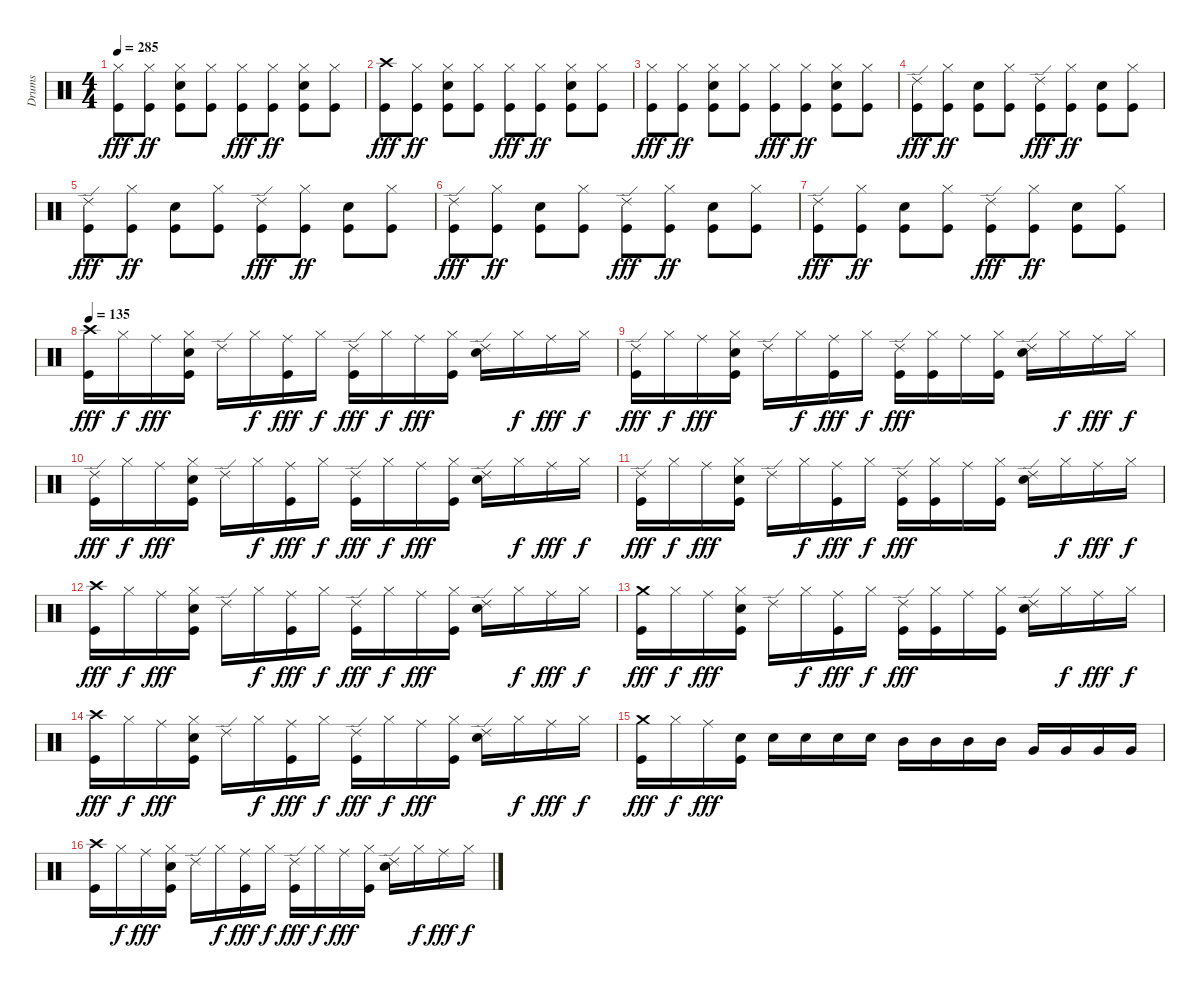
\track ("Drums" "Drums") {instrument percussion}
\staff {score}
\articulation defaults
\ts (4 4)
\tempo 285
\clef neutral
\ks c
("Hi-Hat (closed)" "Kick (hit)").8{dy fff} ("Hi-Hat (closed)" "Kick (hit)").8{dy ff} ("Hi-Hat (closed)" "Snare (hit) 2" "Kick (hit)").8 ("Hi-Hat (closed)" "Kick (hit)").8 ("Hi-Hat (closed)" "Kick (hit)").8{dy fff} ("Hi-Hat (closed)" "Kick (hit)").8{dy ff} ("Hi-Hat (closed)" "Snare (hit) 2" "Kick (hit)").8 ("Hi-Hat (closed)" "Kick (hit)").8 |
("Crash high (hit)" "Kick (hit)").8{dy fff} ("Hi-Hat (closed)" "Kick (hit)").8{dy ff} ("Hi-Hat (closed)" "Snare (hit) 2" "Kick (hit)").8 ("Hi-Hat (closed)" "Kick (hit)").8 ("Hi-Hat (closed)" "Kick (hit)").8{dy fff} ("Hi-Hat (closed)" "Kick (hit)").8{dy ff} ("Hi-Hat (closed)" "Snare (hit) 2" "Kick (hit)").8 ("Hi-Hat (closed)" "Kick (hit)").8 |
("Hi-Hat (closed)" "Kick (hit)").8{dy fff} ("Hi-Hat (closed)" "Kick (hit)").8{dy ff} ("Hi-Hat (closed)" "Snare (hit) 2" "Kick (hit)").8 ("Hi-Hat (closed)" "Kick (hit)").8 ("Hi-Hat (closed)" "Kick (hit)").8{dy fff} ("Hi-Hat (closed)" "Kick (hit)").8{dy ff} ("Hi-Hat (closed)" "Snare (hit) 2" "Kick (hit)").8 ("Hi-Hat (closed)" "Kick (hit)").8 |
("Ride (edge) 2" "Kick (hit)").8{dy fff} ("Hi-Hat (closed)" "Kick (hit)").8{dy ff} ("Snare (hit) 2" "Kick (hit)").8 ("Hi-Hat (closed)" "Kick (hit)").8 ("Ride (edge) 2" "Kick (hit)").8{dy fff} ("Hi-Hat (closed)" "Kick (hit)").8{dy ff} ("Snare (hit) 2" "Kick (hit)").8 ("Hi-Hat (closed)" "Kick (hit)").8 |
("Ride (edge) 2" "Kick (hit)").8{dy fff} ("Hi-Hat (closed)" "Kick (hit)").8{dy ff} ("Snare (hit) 2" "Kick (hit)").8 ("Hi-Hat (closed)" "Kick (hit)").8 ("Ride (edge) 2" "Kick (hit)").8{dy fff} ("Hi-Hat (closed)" "Kick (hit)").8{dy ff} ("Snare (hit) 2" "Kick (hit)").8 ("Hi-Hat (closed)" "Kick (hit)").8 |
("Ride (edge) 2" "Kick (hit)").8{dy fff} ("Hi-Hat (closed)" "Kick (hit)").8{dy ff} ("Snare (hit) 2" "Kick (hit)").8 ("Hi-Hat (closed)" "Kick (hit)").8 ("Ride (edge) 2" "Kick (hit)").8{dy fff} ("Hi-Hat (closed)" "Kick (hit)").8{dy ff} ("Snare (hit) 2" "Kick (hit)").8 ("Hi-Hat (closed)" "Kick (hit)").8 |
("Ride (edge) 2" "Kick (hit)").8{dy fff} ("Hi-Hat (closed)" "Kick (hit)").8{dy ff} ("Snare (hit) 2" "Kick (hit)").8 ("Hi-Hat (closed)" "Kick (hit)").8 ("Ride (edge) 2" "Kick (hit)").8{dy fff} ("Hi-Hat (closed)" "Kick (hit)").8{dy ff} ("Snare (hit) 2" "Kick (hit)").8 ("Hi-Hat (closed)" "Kick (hit)").8 |
\tempo 135
("Crash high (hit)" "Kick (hit)").16{dy fff} "Hi-Hat (closed)".16{dy f} "Ride (middle)".16{dy fff} ("Hi-Hat (closed)" "Snare (hit) 2" "Kick (hit)").16 "Ride (edge) 2".16 "Hi-Hat (closed)".16{dy f} ("Ride (middle)" "Kick (hit)").16{dy fff} "Hi-Hat (closed)".16{dy f} ("Ride (edge) 2" "Kick (hit)").16{dy fff} "Hi-Hat (closed)".16{dy f} "Ride (middle)".16{dy fff} ("Hi-Hat (closed)" "Kick (hit)").16 ("Ride (edge) 2" "Snare (hit) 2").16 "Hi-Hat (closed)".16{dy f} "Ride (middle)".16{dy fff} "Hi-Hat (closed)".16{dy f} |
("Ride (edge) 2" "Kick (hit)").16{dy fff} "Hi-Hat (closed)".16{dy f} "Ride (middle)".16{dy fff} ("Hi-Hat (closed)" "Snare (hit) 2" "Kick (hit)").16 "Ride (edge) 2".16 "Hi-Hat (closed)".16{dy f} ("Ride (middle)" "Kick (hit)").16{dy fff} "Hi-Hat (closed)".16{dy f} ("Ride (edge) 2" "Kick (hit)").16{dy fff} ("Hi-Hat (closed)" "Kick (hit)").16 "Ride (middle)".16 ("Hi-Hat (closed)" "Kick (hit)").16 ("Ride (edge) 2" "Snare (hit) 2").16 "Hi-Hat (closed)".16{dy f} "Ride (middle)".16{dy fff} "Hi-Hat (closed)".16{dy f} |
("Ride (edge) 2" "Kick (hit)").16{dy fff} "Hi-Hat (closed)".16{dy f} "Ride (middle)".16{dy fff} ("Hi-Hat (closed)" "Snare (hit) 2" "Kick (hit)").16 "Ride (edge) 2".16 "Hi-Hat (closed)".16{dy f} ("Ride (middle)" "Kick (hit)").16{dy fff} "Hi-Hat (closed)".16{dy f} ("Ride (edge) 2" "Kick (hit)").16{dy fff} "Hi-Hat (closed)".16{dy f} "Ride (middle)".16{dy fff} ("Hi-Hat (closed)" "Kick (hit)").16 ("Ride (edge) 2" "Snare (hit) 2").16 "Hi-Hat (closed)".16{dy f} "Ride (middle)".16{dy fff} "Hi-Hat (closed)".16{dy f} |
("Ride (edge) 2" "Kick (hit)").16{dy fff} "Hi-Hat (closed)".16{dy f} "Ride (middle)".16{dy fff} ("Hi-Hat (closed)" "Snare (hit) 2" "Kick (hit)").16 "Ride (edge) 2".16 "Hi-Hat (closed)".16{dy f} ("Ride (middle)" "Kick (hit)").16{dy fff} "Hi-Hat (closed)".16{dy f} ("Ride (edge) 2" "Kick (hit)").16{dy fff} ("Hi-Hat (closed)" "Kick (hit)").16 "Ride (middle)".16 ("Hi-Hat (closed)" "Kick (hit)").16 ("Ride (edge) 2" "Snare (hit) 2").16 "Hi-Hat (closed)".16{dy f} "Ride (middle)".16{dy fff} "Hi-Hat (closed)".16{dy f} |
("Crash high (hit)" "Kick (hit)").16{dy fff} "Hi-Hat (closed)".16{dy f} "Ride (middle)".16{dy fff} ("Hi-Hat (closed)" "Snare (hit) 2" "Kick (hit)").16 "Ride (edge) 2".16 "Hi-Hat (closed)".16{dy f} ("Ride (middle)" "Kick (hit)").16{dy fff} "Hi-Hat (closed)".16{dy f} ("Ride (edge) 2" "Kick (hit)").16{dy fff} "Hi-Hat (closed)".16{dy f} "Ride (middle)".16{dy fff} ("Hi-Hat (closed)" "Kick (hit)").16 ("Ride (edge) 2" "Snare (hit) 2").16 "Hi-Hat (closed)".16{dy f} "Ride (middle)".16{dy fff} "Hi-Hat (closed)".16{dy f} |
("Crash medium (hit)" "Kick (hit)").16{dy fff} "Hi-Hat (closed)".16{dy f} "Ride (middle)".16{dy fff} ("Hi-Hat (closed)" "Snare (hit) 2" "Kick (hit)").16 "Ride (edge) 2".16 "Hi-Hat (closed)".16{dy f} ("Ride (middle)" "Kick (hit)").16{dy fff} "Hi-Hat (closed)".16{dy f} ("Ride (edge) 2" "Kick (hit)").16{dy fff} ("Hi-Hat (closed)" "Kick (hit)").16 "Ride (middle)".16 ("Hi-Hat (closed)" "Kick (hit)").16 ("Ride (edge) 2" "Snare (hit) 2").16 "Hi-Hat (closed)".16{dy f} "Ride (middle)".16{dy fff} "Hi-Hat (closed)".16{dy f} |
("Crash high (hit)" "Kick (hit)").16{dy fff} "Hi-Hat (closed)".16{dy f} "Ride (middle)".16{dy fff} ("Hi-Hat (closed)" "Snare (hit) 2" "Kick (hit)").16 "Ride (edge) 2".16 "Hi-Hat (closed)".16{dy f} ("Ride (middle)" "Kick (hit)").16{dy fff} "Hi-Hat (closed)".16{dy f} ("Ride (edge) 2" "Kick (hit)").16{dy fff} "Hi-Hat (closed)".16{dy f} "Ride (middle)".16{dy fff} ("Hi-Hat (closed)" "Kick (hit)").16 ("Ride (edge) 2" "Snare (hit) 2").16 "Hi-Hat (closed)".16{dy f} "Ride (middle)".16{dy fff} "Hi-Hat (closed)".16{dy f} |
("Crash medium (hit)" "Kick (hit)").16{dy fff} "Hi-Hat (closed)".16{dy f} "Ride (middle)".16{dy fff volume 10} ("Snare (hit) 2" "Kick (hit)").16{volume 14} "Snare (hit) 2".16 "Snare (hit) 2".16 "Snare (hit) 2".16 "Snare (hit) 2".16 "Mid Tom (hit)".16 "Mid Tom (hit)".16 "Mid Tom (hit)".16 "Mid Tom (hit)".16 "Very Low Tom (hit)".16 "Very Low Tom (hit)".16 "Very Low Tom (hit)".16 "Very Low Tom (hit)".16 |
("Crash high (hit)" "Kick (hit)").16 "Hi-Hat (closed)".16{dy f} "Ride (middle)".16{dy fff} ("Hi-Hat (closed)" "Snare (hit) 2" "Kick (hit)").16 "Ride (edge) 2".16 "Hi-Hat (closed)".16{dy f} ("Ride (middle)" "Kick (hit)").16{dy fff} "Hi-Hat (closed)".16{dy f} ("Ride (edge) 2" "Kick (hit)").16{dy fff} "Hi-Hat (closed)".16{dy f} "Ride (middle)".16{dy fff} ("Hi-Hat (closed)" "Kick (hit)").16 ("Ride (edge) 2" "Snare (hit) 2").16 "Hi-Hat (closed)".16{dy f} "Ride (middle)".16{dy fff} "Hi-Hat (closed)".16{dy f}
